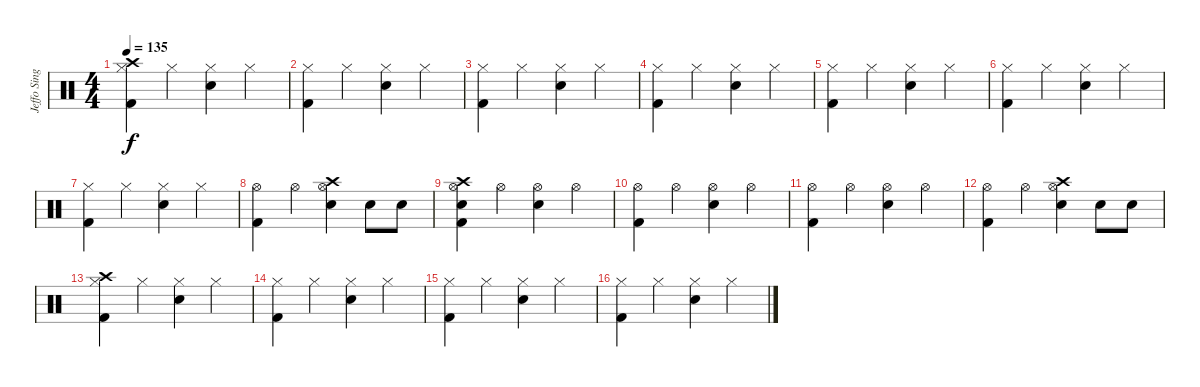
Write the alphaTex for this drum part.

\track ("Jeffo Singer" "Jeffo Sing") {instrument percussion}
\staff {score}
\articulation defaults
\ts (4 4)
\tempo 135
\clef neutral
\ks c
("Hi-Hat (closed)" "Kick (hit) 2" "Crash high (hit)").4{dy f} "Hi-Hat (closed)".4 ("Hi-Hat (closed)" "Snare (hit) 2").4 "Hi-Hat (closed)".4 |
("Hi-Hat (closed)" "Kick (hit) 2").4 "Hi-Hat (closed)".4 ("Hi-Hat (closed)" "Snare (hit) 2").4 "Hi-Hat (closed)".4 |
("Hi-Hat (closed)" "Kick (hit) 2").4 "Hi-Hat (closed)".4 ("Hi-Hat (closed)" "Snare (hit) 2").4 "Hi-Hat (closed)".4 |
("Hi-Hat (closed)" "Kick (hit) 2").4 "Hi-Hat (closed)".4 ("Hi-Hat (closed)" "Snare (hit) 2").4 "Hi-Hat (closed)".4 |
("Hi-Hat (closed)" "Kick (hit) 2").4 "Hi-Hat (closed)".4 ("Hi-Hat (closed)" "Snare (hit) 2").4 "Hi-Hat (closed)".4 |
("Hi-Hat (closed)" "Kick (hit) 2").4 "Hi-Hat (closed)".4 ("Hi-Hat (closed)" "Snare (hit) 2").4 "Hi-Hat (closed)".4 |
("Hi-Hat (closed)" "Kick (hit) 2").4 "Hi-Hat (closed)".4 ("Hi-Hat (closed)" "Snare (hit) 2").4 "Hi-Hat (closed)".4 |
("Hi-Hat (open)" "Kick (hit) 2").4 "Hi-Hat (open)".4 ("Hi-Hat (open)" "Snare (hit) 2" "Crash high (hit)").4 "Snare (hit) 2".8 "Snare (hit) 2".8 |
("Hi-Hat (open)" "Kick (hit) 2" "Snare (hit) 2" "Crash high (hit)").4 "Hi-Hat (open)".4 ("Hi-Hat (open)" "Snare (hit) 2").4 "Hi-Hat (open)".4 |
("Hi-Hat (open)" "Kick (hit) 2").4 "Hi-Hat (open)".4 ("Hi-Hat (open)" "Snare (hit) 2").4 "Hi-Hat (open)".4 |
("Hi-Hat (open)" "Kick (hit) 2").4 "Hi-Hat (open)".4 ("Hi-Hat (open)" "Snare (hit) 2").4 "Hi-Hat (open)".4 |
("Hi-Hat (open)" "Kick (hit) 2").4 "Hi-Hat (open)".4 ("Hi-Hat (open)" "Snare (hit) 2" "Crash high (hit)").4 "Snare (hit) 2".8 "Snare (hit) 2".8 |
("Hi-Hat (closed)" "Kick (hit) 2" "Crash high (hit)").4 "Hi-Hat (closed)".4 ("Hi-Hat (closed)" "Snare (hit) 2").4 "Hi-Hat (closed)".4 |
("Hi-Hat (closed)" "Kick (hit) 2").4 "Hi-Hat (closed)".4 ("Hi-Hat (closed)" "Snare (hit) 2").4 "Hi-Hat (closed)".4 |
("Hi-Hat (closed)" "Kick (hit) 2").4 "Hi-Hat (closed)".4 ("Hi-Hat (closed)" "Snare (hit) 2").4 "Hi-Hat (closed)".4 |
("Hi-Hat (closed)" "Kick (hit) 2").4 "Hi-Hat (closed)".4 ("Hi-Hat (closed)" "Snare (hit) 2").4 "Hi-Hat (closed)".4
